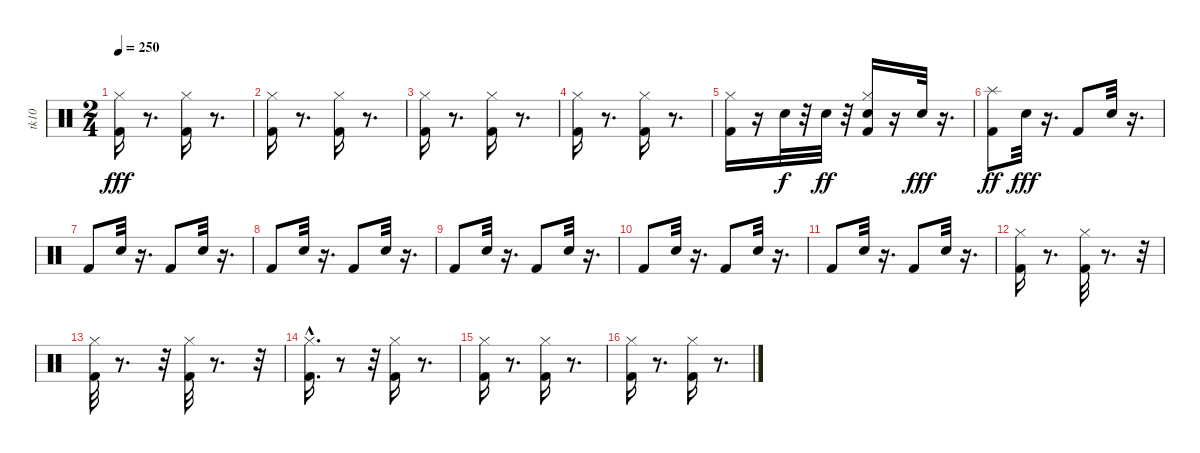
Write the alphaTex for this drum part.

\track ("tk10" "tk10") {instrument percussion}
\staff {score}
\articulation defaults
\ts (2 4)
\tempo 250
\clef neutral
\ks c
("Kick (hit) 2" "Hi-Hat (closed)").16{dy fff} r.8{d} ("Kick (hit) 2" "Hi-Hat (closed)").16 r.8{d} |
("Kick (hit) 2" "Hi-Hat (closed)").16 r.8{d} ("Hi-Hat (closed)" "Kick (hit) 2").16 r.8{d} |
("Hi-Hat (closed)" "Kick (hit) 2").16 r.8{d} ("Hi-Hat (closed)" "Kick (hit) 2").16 r.8{d} |
("Hi-Hat (closed)" "Kick (hit) 2").16 r.8{d} ("Hi-Hat (closed)" "Kick (hit) 2").16 r.8{d} |
("Hi-Hat (closed)" "Kick (hit) 2").16 r.16 "Electric Snare (hit)".32{dy f} r.32 "Electric Snare (hit)".32{dy ff} r.32 ("Kick (hit) 2" "Hi-Hat (closed)" "Electric Snare (hit)").16 r.16 "Electric Snare (hit)".32{dy fff} r.16{d} |
("Kick (hit) 2" "Splash (hit)").8{dy ff} "Snare (hit) 2".32{dy fff} r.16{d} "Kick (hit) 2".8 "Snare (hit) 2".32 r.16{d} |
"Kick (hit) 2".8 "Snare (hit) 2".32 r.16{d} "Kick (hit) 2".8 "Snare (hit) 2".32 r.16{d} |
"Kick (hit) 2".8 "Snare (hit) 2".32 r.16{d} "Kick (hit) 2".8 "Snare (hit) 2".32 r.16{d} |
"Kick (hit) 2".8 "Snare (hit) 2".32 r.16{d} "Kick (hit) 2".8 "Snare (hit) 2".32 r.16{d} |
"Kick (hit) 2".8 "Snare (hit) 2".32 r.16{d} "Kick (hit) 2".8 "Snare (hit) 2".32 r.16{d} |
"Kick (hit) 2".8 "Snare (hit) 2".32 r.16{d} "Kick (hit) 2".8 "Snare (hit) 2".32 r.16{d} |
("Hi-Hat (closed)" "Kick (hit) 2").16 r.8{d} ("Kick (hit) 2" "Hi-Hat (closed)").32 r.8{d} r.32 |
("Hi-Hat (closed)" "Kick (hit) 2").32 r.8{d} r.32 ("Hi-Hat (closed)" "Kick (hit) 2").32 r.8{d} r.32 |
("Hi-Hat (closed)" "Kick (hit) 2"{hac}).16{d} r.8 r.32 ("Kick (hit) 2" "Hi-Hat (closed)").16 r.8{d} |
("Hi-Hat (closed)" "Kick (hit) 2").16 r.8{d} ("Kick (hit) 2" "Hi-Hat (closed)").16 r.8{d} |
("Kick (hit) 2" "Hi-Hat (closed)").16 r.8{d} ("Hi-Hat (closed)" "Kick (hit) 2").16 r.8{d}
